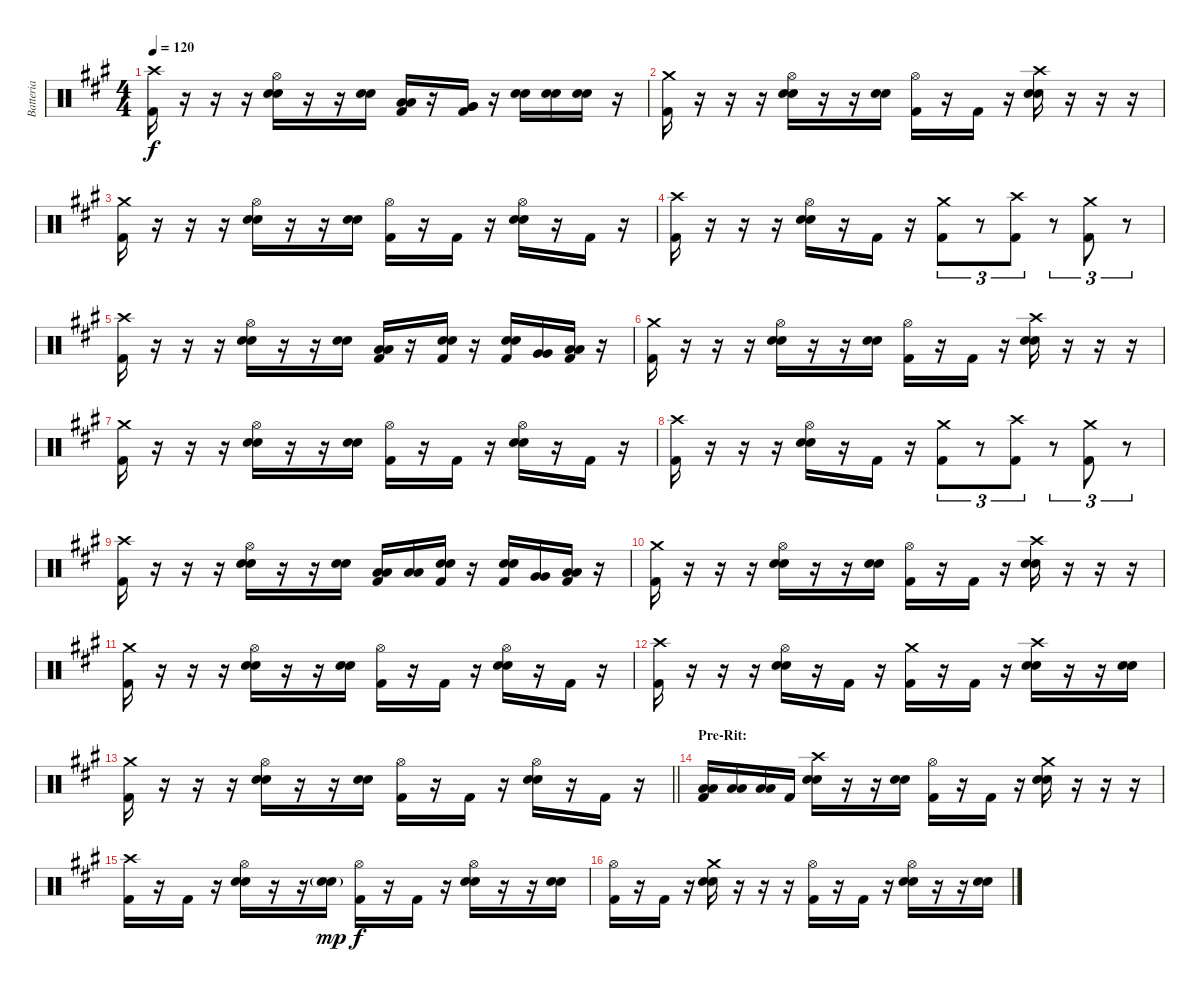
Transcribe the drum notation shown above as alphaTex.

\track ("Batteria" "Batteria") {instrument percussion}
\staff {score}
\articulation defaults
\ts (4 4)
\tempo 120
\clef neutral
\ks a
("Kick (hit) 2" "Crash high (hit)").16{dy f} r.16 r.16 r.16 ("Snare (hit) 2" "Snare (hit) 2" "Hi-Hat (open)").16 r.16 r.16 ("Snare (hit) 2" "Snare (hit) 2").16 ("Kick (hit) 2" "Low Tom (hit)" "Low Tom (hit)").16 r.16 ("Kick (hit) 2" "Very Low Tom (hit)" "Very Low Tom (hit)").16 r.16 ("Snare (hit) 2" "Snare (hit) 2").16 ("Snare (hit) 2" "Snare (hit) 2").16 ("Snare (hit) 2" "Snare (hit) 2").16 r.16 |
("Kick (hit) 2" "Crash medium (hit)").16 r.16 r.16 r.16 ("Snare (hit) 2" "Snare (hit) 2" "Hi-Hat (open)").16 r.16 r.16 ("Snare (hit) 2" "Snare (hit) 2").16 ("Kick (hit) 2" "Hi-Hat (open)").16 r.16 "Kick (hit) 2".16 r.16 ("Snare (hit) 2" "Snare (hit) 2" "Crash high (hit)").16 r.16 r.16 r.16 |
("Kick (hit) 2" "Crash medium (hit)").16 r.16 r.16 r.16 ("Snare (hit) 2" "Snare (hit) 2" "Hi-Hat (open)").16 r.16 r.16 ("Snare (hit) 2" "Snare (hit) 2").16 ("Kick (hit) 2" "Hi-Hat (open)").16 r.16 "Kick (hit) 2".16 r.16 ("Snare (hit) 2" "Snare (hit) 2" "Hi-Hat (open)").16 r.16 "Kick (hit) 2".16 r.16 |
("Kick (hit) 2" "Crash high (hit)").16 r.16 r.16 r.16 ("Snare (hit) 2" "Snare (hit) 2" "Hi-Hat (open)").16 r.16 "Kick (hit) 2".16 r.16 ("Kick (hit) 2" "Crash medium (hit)").8{tu (3 2)} r.8{tu (3 2)} ("Kick (hit) 2" "Crash high (hit)").8{tu (3 2)} r.8{tu (3 2)} ("Kick (hit) 2" "Crash medium (hit)").8{tu (3 2)} r.8{tu (3 2)} |
("Kick (hit) 2" "Crash high (hit)").16 r.16 r.16 r.16 ("Snare (hit) 2" "Snare (hit) 2" "Hi-Hat (open)").16 r.16 r.16 ("Snare (hit) 2" "Snare (hit) 2").16 ("Kick (hit) 2" "Low Tom (hit)" "Low Tom (hit)").16 r.16 ("Kick (hit) 2" "Snare (hit) 2" "Snare (hit) 2").16 r.16 ("Kick (hit) 2" "Snare (hit) 2" "Snare (hit) 2").16 ("Very Low Tom (hit)" "Very Low Tom (hit)").16 ("Kick (hit) 2" "Low Floor Tom (hit)" "Low Floor Tom (hit)").16 r.16 |
("Kick (hit) 2" "Crash medium (hit)").16 r.16 r.16 r.16 ("Snare (hit) 2" "Snare (hit) 2" "Hi-Hat (open)").16 r.16 r.16 ("Snare (hit) 2" "Snare (hit) 2").16 ("Kick (hit) 2" "Hi-Hat (open)").16 r.16 "Kick (hit) 2".16 r.16 ("Snare (hit) 2" "Snare (hit) 2" "Crash high (hit)").16 r.16 r.16 r.16 |
("Kick (hit) 2" "Crash medium (hit)").16 r.16 r.16 r.16 ("Snare (hit) 2" "Snare (hit) 2" "Hi-Hat (open)").16 r.16 r.16 ("Snare (hit) 2" "Snare (hit) 2").16 ("Kick (hit) 2" "Hi-Hat (open)").16 r.16 "Kick (hit) 2".16 r.16 ("Snare (hit) 2" "Snare (hit) 2" "Hi-Hat (open)").16 r.16 "Kick (hit) 2".16 r.16 |
("Kick (hit) 2" "Crash high (hit)").16 r.16 r.16 r.16 ("Snare (hit) 2" "Snare (hit) 2" "Hi-Hat (open)").16 r.16 "Kick (hit) 2".16 r.16 ("Kick (hit) 2" "Crash medium (hit)").8{tu (3 2)} r.8{tu (3 2)} ("Kick (hit) 2" "Crash high (hit)").8{tu (3 2)} r.8{tu (3 2)} ("Kick (hit) 2" "Crash medium (hit)").8{tu (3 2)} r.8{tu (3 2)} |
("Kick (hit) 2" "Crash high (hit)").16 r.16 r.16 r.16 ("Snare (hit) 2" "Snare (hit) 2" "Hi-Hat (open)").16 r.16 r.16 ("Snare (hit) 2" "Snare (hit) 2").16 ("Kick (hit) 2" "Low Tom (hit)" "Low Tom (hit)").16 ("Low Tom (hit)" "Low Tom (hit)").16 ("Kick (hit) 2" "Snare (hit) 2" "Snare (hit) 2").16 r.16 ("Kick (hit) 2" "Snare (hit) 2" "Snare (hit) 2").16 ("Very Low Tom (hit)" "Very Low Tom (hit)").16 ("Kick (hit) 2" "Low Floor Tom (hit)" "Low Floor Tom (hit)").16 r.16 |
("Kick (hit) 2" "Crash medium (hit)").16 r.16 r.16 r.16 ("Snare (hit) 2" "Snare (hit) 2" "Hi-Hat (open)").16 r.16 r.16 ("Snare (hit) 2" "Snare (hit) 2").16 ("Kick (hit) 2" "Hi-Hat (open)").16 r.16 "Kick (hit) 2".16 r.16 ("Snare (hit) 2" "Snare (hit) 2" "Crash high (hit)").16 r.16 r.16 r.16 |
("Kick (hit) 2" "Crash medium (hit)").16 r.16 r.16 r.16 ("Snare (hit) 2" "Snare (hit) 2" "Hi-Hat (open)").16 r.16 r.16 ("Snare (hit) 2" "Snare (hit) 2").16 ("Kick (hit) 2" "Hi-Hat (open)").16 r.16 "Kick (hit) 2".16 r.16 ("Snare (hit) 2" "Snare (hit) 2" "Hi-Hat (open)").16 r.16 "Kick (hit) 2".16 r.16 |
("Kick (hit) 2" "Crash high (hit)").16 r.16 r.16 r.16 ("Snare (hit) 2" "Snare (hit) 2" "Hi-Hat (open)").16 r.16 "Kick (hit) 2".16 r.16 ("Kick (hit) 2" "Crash medium (hit)").16 r.16 "Kick (hit) 2".16 r.16 ("Snare (hit) 2" "Snare (hit) 2" "Crash high (hit)").16 r.16 r.16 ("Snare (hit) 2" "Snare (hit) 2").16 |
\barLineRight lightlight
("Kick (hit) 2" "Crash medium (hit)").16 r.16 r.16 r.16 ("Snare (hit) 2" "Snare (hit) 2" "Hi-Hat (open)").16 r.16 r.16 ("Snare (hit) 2" "Snare (hit) 2").16 ("Kick (hit) 2" "Hi-Hat (open)").16 r.16 "Kick (hit) 2".16 r.16 ("Snare (hit) 2" "Snare (hit) 2" "Hi-Hat (open)").16 r.16 "Kick (hit) 2".16 r.16 |
\section ("" "Pre-Rit:")
("Kick (hit) 2" "Low Floor Tom (hit)" "Low Floor Tom (hit)").16 ("Low Floor Tom (hit)" "Low Floor Tom (hit)").16 ("Low Floor Tom (hit)" "Low Floor Tom (hit)").16 "Kick (hit) 2".16 ("Snare (hit) 2" "Snare (hit) 2" "Crash high (hit)").16 r.16 r.16 ("Snare (hit) 2" "Snare (hit) 2").16 ("Kick (hit) 2" "Hi-Hat (open)").16 r.16 "Kick (hit) 2".16 r.16 ("Snare (hit) 2" "Snare (hit) 2" "Crash medium (hit)").16 r.16 r.16 r.16 |
("Kick (hit) 2" "Crash high (hit)").16 r.16 "Kick (hit) 2".16 r.16 ("Snare (hit) 2" "Snare (hit) 2" "Hi-Hat (open)").16 r.16 r.16 ("Snare (hit) 2"{g} "Snare (hit) 2"{g}).16{dy mp} ("Kick (hit) 2" "Hi-Hat (open)").16{dy f} r.16 "Kick (hit) 2".16 r.16 ("Snare (hit) 2" "Snare (hit) 2" "Hi-Hat (open)").16 r.16 r.16 ("Snare (hit) 2" "Snare (hit) 2").16 |
("Kick (hit) 2" "Hi-Hat (open)").16 r.16 "Kick (hit) 2".16 r.16 ("Snare (hit) 2" "Snare (hit) 2" "Crash medium (hit)").16 r.16 r.16 r.16 ("Kick (hit) 2" "Hi-Hat (open)").16 r.16 "Kick (hit) 2".16 r.16 ("Snare (hit) 2" "Snare (hit) 2" "Hi-Hat (open)").16 r.16 r.16 ("Snare (hit) 2" "Snare (hit) 2").16
